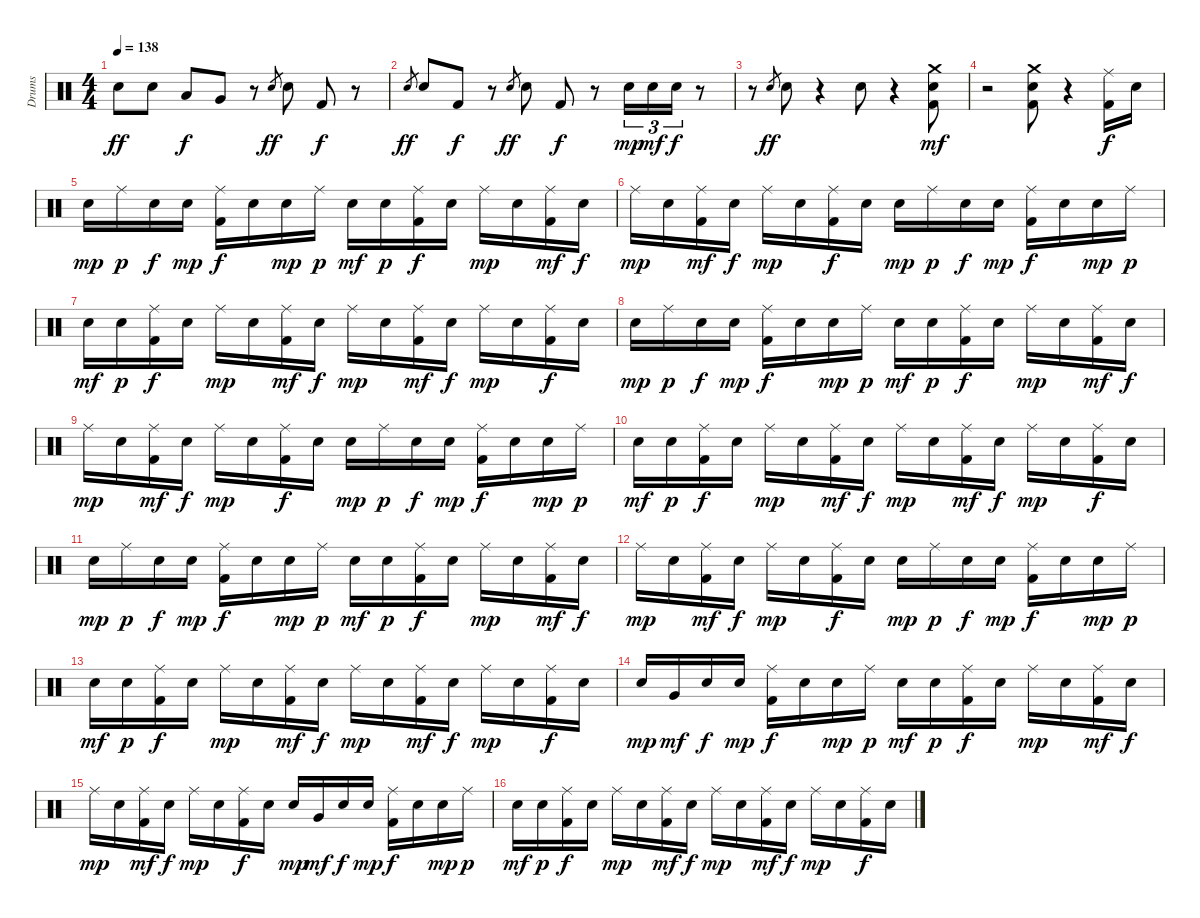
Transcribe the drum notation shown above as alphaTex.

\track ("Drums" "Drums") {instrument percussion}
\staff {score}
\articulation defaults
\ts (4 4)
\tempo 138
\clef neutral
\ks c "Electric Snare (hit)".8{dy ff} "Electric Snare (hit)".8 "Low Tom (hit)".8{dy f} "Very Low Tom (hit)".8
r.8 "Electric Snare (hit)".8{gr dy ff} "Electric Snare (hit)".8 "Kick (hit) 2".8{dy f} r.8 |
"Electric Snare (hit)".8{gr dy ff} "Electric Snare (hit)".8 "Kick (hit) 2".8{dy f} r.8 "Electric Snare (hit)".8{gr dy ff} "Electric Snare (hit)".8 "Kick (hit) 2".8{dy f} r.8 "Electric Snare (hit)".16{tu (3 2) dy mp} "Electric Snare (hit)".16{tu (3 2) dy mf} "Electric Snare (hit)".16{tu (3 2) dy f} r.8 |
r.8 "Electric Snare (hit)".8{gr dy ff} "Electric Snare (hit)".8 r.4 "Electric Snare (hit)".8 r.4 ("Kick (hit) 2" "Electric Snare (hit)" "Crash medium (hit)").8{dy mf} |
r.2 ("Kick (hit) 2" "Electric Snare (hit)" "Crash medium (hit)").8 r.4 ("Kick (hit) 2" "Ride (middle)").16{dy f} "Electric Snare (hit)".16 |
"Electric Snare (hit)".16{dy mp} "Ride (middle)".16{dy p} "Electric Snare (hit)".16{dy f} "Electric Snare (hit)".16{dy mp} ("Kick (hit) 2" "Ride (middle)").16{dy f} "Electric Snare (hit)".16 "Electric Snare (hit)".16{dy mp} "Ride (middle)".16{dy p} "Electric Snare (hit)".16{dy mf} "Electric Snare (hit)".16{dy p} ("Kick (hit) 2" "Ride (middle)").16{dy f} "Electric Snare (hit)".16 "Ride (middle)".16{dy mp} "Electric Snare (hit)".16 ("Kick (hit) 2" "Ride (middle)").16{dy mf} "Electric Snare (hit)".16{dy f} |
"Ride (middle)".16{dy mp} "Electric Snare (hit)".16 ("Kick (hit) 2" "Ride (middle)").16{dy mf} "Electric Snare (hit)".16{dy f} "Ride (middle)".16{dy mp} "Electric Snare (hit)".16 ("Kick (hit) 2" "Ride (middle)").16{dy f} "Electric Snare (hit)".16 "Electric Snare (hit)".16{dy mp} "Ride (middle)".16{dy p} "Electric Snare (hit)".16{dy f} "Electric Snare (hit)".16{dy mp} ("Kick (hit) 2" "Ride (middle)").16{dy f} "Electric Snare (hit)".16 "Electric Snare (hit)".16{dy mp} "Ride (middle)".16{dy p} |
"Electric Snare (hit)".16{dy mf} "Electric Snare (hit)".16{dy p} ("Kick (hit) 2" "Ride (middle)").16{dy f} "Electric Snare (hit)".16 "Ride (middle)".16{dy mp} "Electric Snare (hit)".16 ("Kick (hit) 2" "Ride (middle)").16{dy mf} "Electric Snare (hit)".16{dy f} "Ride (middle)".16{dy mp} "Electric Snare (hit)".16 ("Kick (hit) 2" "Ride (middle)").16{dy mf} "Electric Snare (hit)".16{dy f} "Ride (middle)".16{dy mp} "Electric Snare (hit)".16 ("Kick (hit) 2" "Ride (middle)").16{dy f} "Electric Snare (hit)".16 |
"Electric Snare (hit)".16{dy mp} "Ride (middle)".16{dy p} "Electric Snare (hit)".16{dy f} "Electric Snare (hit)".16{dy mp} ("Kick (hit) 2" "Ride (middle)").16{dy f} "Electric Snare (hit)".16 "Electric Snare (hit)".16{dy mp} "Ride (middle)".16{dy p} "Electric Snare (hit)".16{dy mf} "Electric Snare (hit)".16{dy p} ("Kick (hit) 2" "Ride (middle)").16{dy f} "Electric Snare (hit)".16 "Ride (middle)".16{dy mp} "Electric Snare (hit)".16 ("Kick (hit) 2" "Ride (middle)").16{dy mf} "Electric Snare (hit)".16{dy f} |
"Ride (middle)".16{dy mp} "Electric Snare (hit)".16 ("Kick (hit) 2" "Ride (middle)").16{dy mf} "Electric Snare (hit)".16{dy f} "Ride (middle)".16{dy mp} "Electric Snare (hit)".16 ("Kick (hit) 2" "Ride (middle)").16{dy f} "Electric Snare (hit)".16 "Electric Snare (hit)".16{dy mp} "Ride (middle)".16{dy p} "Electric Snare (hit)".16{dy f} "Electric Snare (hit)".16{dy mp} ("Kick (hit) 2" "Ride (middle)").16{dy f} "Electric Snare (hit)".16 "Electric Snare (hit)".16{dy mp} "Ride (middle)".16{dy p} |
"Electric Snare (hit)".16{dy mf} "Electric Snare (hit)".16{dy p} ("Kick (hit) 2" "Ride (middle)").16{dy f} "Electric Snare (hit)".16 "Ride (middle)".16{dy mp} "Electric Snare (hit)".16 ("Kick (hit) 2" "Ride (middle)").16{dy mf} "Electric Snare (hit)".16{dy f} "Ride (middle)".16{dy mp} "Electric Snare (hit)".16 ("Kick (hit) 2" "Ride (middle)").16{dy mf} "Electric Snare (hit)".16{dy f} "Ride (middle)".16{dy mp} "Electric Snare (hit)".16 ("Kick (hit) 2" "Ride (middle)").16{dy f} "Electric Snare (hit)".16 |
"Electric Snare (hit)".16{dy mp} "Ride (middle)".16{dy p} "Electric Snare (hit)".16{dy f} "Electric Snare (hit)".16{dy mp} ("Kick (hit) 2" "Ride (middle)").16{dy f} "Electric Snare (hit)".16 "Electric Snare (hit)".16{dy mp} "Ride (middle)".16{dy p} "Electric Snare (hit)".16{dy mf} "Electric Snare (hit)".16{dy p} ("Kick (hit) 2" "Ride (middle)").16{dy f} "Electric Snare (hit)".16 "Ride (middle)".16{dy mp} "Electric Snare (hit)".16 ("Kick (hit) 2" "Ride (middle)").16{dy mf} "Electric Snare (hit)".16{dy f} |
"Ride (middle)".16{dy mp} "Electric Snare (hit)".16 ("Kick (hit) 2" "Ride (middle)").16{dy mf} "Electric Snare (hit)".16{dy f} "Ride (middle)".16{dy mp} "Electric Snare (hit)".16 ("Kick (hit) 2" "Ride (middle)").16{dy f} "Electric Snare (hit)".16 "Electric Snare (hit)".16{dy mp} "Ride (middle)".16{dy p} "Electric Snare (hit)".16{dy f} "Electric Snare (hit)".16{dy mp} ("Kick (hit) 2" "Ride (middle)").16{dy f} "Electric Snare (hit)".16 "Electric Snare (hit)".16{dy mp} "Ride (middle)".16{dy p} |
"Electric Snare (hit)".16{dy mf} "Electric Snare (hit)".16{dy p} ("Kick (hit) 2" "Ride (middle)").16{dy f} "Electric Snare (hit)".16 "Ride (middle)".16{dy mp} "Electric Snare (hit)".16 ("Kick (hit) 2" "Ride (middle)").16{dy mf} "Electric Snare (hit)".16{dy f} "Ride (middle)".16{dy mp} "Electric Snare (hit)".16 ("Kick (hit) 2" "Ride (middle)").16{dy mf} "Electric Snare (hit)".16{dy f} "Ride (middle)".16{dy mp} "Electric Snare (hit)".16 ("Kick (hit) 2" "Ride (middle)").16{dy f} "Electric Snare (hit)".16 |
"Electric Snare (hit)".16{dy mp} "Very Low Tom (hit)".16{dy mf} "Electric Snare (hit)".16{dy f} "Electric Snare (hit)".16{dy mp} ("Kick (hit) 2" "Ride (middle)").16{dy f} "Electric Snare (hit)".16 "Electric Snare (hit)".16{dy mp} "Ride (middle)".16{dy p} "Electric Snare (hit)".16{dy mf} "Electric Snare (hit)".16{dy p} ("Kick (hit) 2" "Ride (middle)").16{dy f} "Electric Snare (hit)".16 "Ride (middle)".16{dy mp} "Electric Snare (hit)".16 ("Kick (hit) 2" "Ride (middle)").16{dy mf} "Electric Snare (hit)".16{dy f} |
"Ride (middle)".16{dy mp} "Electric Snare (hit)".16 ("Kick (hit) 2" "Ride (middle)").16{dy mf} "Electric Snare (hit)".16{dy f} "Ride (middle)".16{dy mp} "Electric Snare (hit)".16 ("Kick (hit) 2" "Ride (middle)").16{dy f} "Electric Snare (hit)".16 "Electric Snare (hit)".16{dy mp} "Very Low Tom (hit)".16{dy mf} "Electric Snare (hit)".16{dy f} "Electric Snare (hit)".16{dy mp} ("Kick (hit) 2" "Ride (middle)").16{dy f} "Electric Snare (hit)".16 "Electric Snare (hit)".16{dy mp} "Ride (middle)".16{dy p} |
"Electric Snare (hit)".16{dy mf} "Electric Snare (hit)".16{dy p} ("Kick (hit) 2" "Ride (middle)").16{dy f} "Electric Snare (hit)".16 "Ride (middle)".16{dy mp} "Electric Snare (hit)".16 ("Kick (hit) 2" "Ride (middle)").16{dy mf} "Electric Snare (hit)".16{dy f} "Ride (middle)".16{dy mp} "Electric Snare (hit)".16 ("Kick (hit) 2" "Ride (middle)").16{dy mf} "Electric Snare (hit)".16{dy f} "Ride (middle)".16{dy mp} "Electric Snare (hit)".16 ("Kick (hit) 2" "Ride (middle)").16{dy f} "Electric Snare (hit)".16
